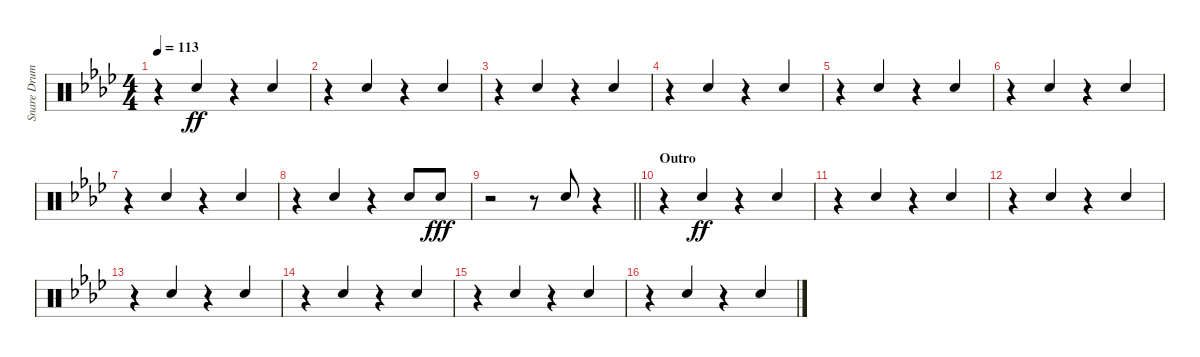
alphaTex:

\track ("Snare Drum" "Snare Drum") {instrument percussion}
\staff {score}
\articulation defaults
\ts (4 4)
\tempo 113
\clef neutral
\ks fminor
r.4{dy ff} "Electric Snare (hit)".4{beam Up} r.4 "Electric Snare (hit)".4{beam Up} |
r.4 "Electric Snare (hit)".4{beam Up} r.4 "Electric Snare (hit)".4{beam Up} |
r.4 "Electric Snare (hit)".4{beam Up} r.4 "Electric Snare (hit)".4{beam Up} |
r.4 "Electric Snare (hit)".4{beam Up} r.4 "Electric Snare (hit)".4{beam Up} |
r.4 "Electric Snare (hit)".4{beam Up} r.4 "Electric Snare (hit)".4{beam Up} |
r.4 "Electric Snare (hit)".4{beam Up} r.4 "Electric Snare (hit)".4{beam Up} |
r.4 "Electric Snare (hit)".4{beam Up} r.4 "Electric Snare (hit)".4{beam Up} |
r.4 "Electric Snare (hit)".4{beam Up} r.4 "Electric Snare (hit)".8{beam Up} "Electric Snare (hit)".8{dy fff beam Up} |
\barLineRight lightlight
r.2 r.8 "Electric Snare (hit)".8{beam Up} r.4 |
\section ("" "Outro")
r.4 "Electric Snare (hit)".4{dy ff beam Up} r.4 "Electric Snare (hit)".4{beam Up} |
r.4 "Electric Snare (hit)".4{beam Up} r.4 "Electric Snare (hit)".4{beam Up} |
r.4 "Electric Snare (hit)".4{beam Up} r.4 "Electric Snare (hit)".4{beam Up} |
r.4 "Electric Snare (hit)".4{beam Up} r.4 "Electric Snare (hit)".4{beam Up} |
r.4 "Electric Snare (hit)".4{beam Up} r.4 "Electric Snare (hit)".4{beam Up} |
r.4 "Electric Snare (hit)".4{beam Up} r.4 "Electric Snare (hit)".4{beam Up} |
r.4 "Electric Snare (hit)".4{beam Up} r.4 "Electric Snare (hit)".4{beam Up}
